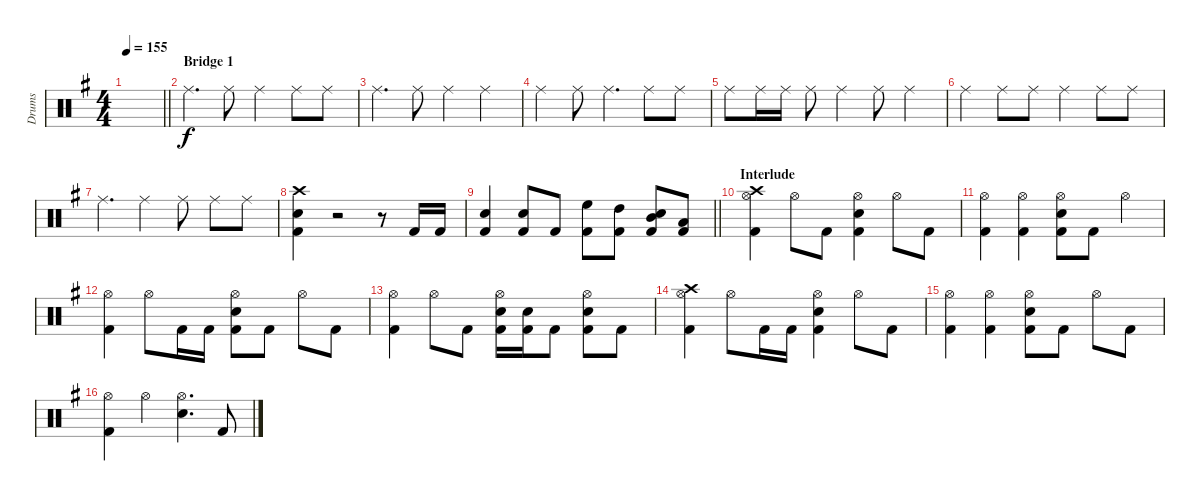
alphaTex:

\track ("Drums" "Drums") {instrument percussion}
\staff {score}
\articulation defaults
\ts (4 4)
\tempo 155
\clef neutral
\barLineRight lightlight
\ks g
|
\section ("" "Bridge 1")
"Ride (middle)".4{d} "Ride (middle)".8 "Ride (middle)".4 "Ride (middle)".8 "Ride (middle)".8 |
"Ride (middle)".4{d} "Ride (middle)".8 "Ride (middle)".4 "Ride (middle)".4 |
"Ride (middle)".4 "Ride (middle)".8 "Ride (middle)".4{d} "Ride (middle)".8 "Ride (middle)".8 |
"Ride (middle)".8 "Ride (middle)".16 "Ride (middle)".16 "Ride (middle)".8 "Ride (middle)".4 "Ride (middle)".8 "Ride (middle)".4 |
"Ride (middle)".4 "Ride (middle)".8 "Ride (middle)".8 "Ride (middle)".4 "Ride (middle)".8 "Ride (middle)".8 |
"Ride (middle)".4{d} "Ride (middle)".4 "Ride (middle)".8 "Ride (middle)".8 "Ride (middle)".8 |
("Crash high (hit)" "Kick (hit) 2" "Snare (hit) 2").4{volume 16} r.2 r.8 "Kick (hit) 2".16 "Kick (hit) 2".16 |
\barLineRight lightlight
("Snare (hit) 2" "Kick (hit) 2").4 ("Snare (hit) 2" "Kick (hit) 2").8 "Kick (hit) 2".8 ("Kick (hit) 2" "High Floor Tom (hit)").8 ("Kick (hit) 2" "High Tom (hit)").8 ("Snare (hit) 2" "Kick (hit) 2" "Mid Tom (hit)").8 ("Kick (hit) 2" "Low Tom (hit)").8 |
\section ("" "Interlude")
("Crash high (hit)" "Hi-Hat (open)" "Kick (hit) 2").4 "Hi-Hat (open)".8 "Kick (hit) 2".8 ("Hi-Hat (open)" "Snare (hit) 2" "Kick (hit) 2").4 "Hi-Hat (open)".8 "Kick (hit) 2".8 |
("Hi-Hat (open)" "Kick (hit) 2").4 ("Hi-Hat (open)" "Kick (hit) 2").4 ("Hi-Hat (open)" "Snare (hit) 2" "Kick (hit) 2").8 "Kick (hit) 2".8 "Hi-Hat (open)".4 |
("Hi-Hat (open)" "Kick (hit) 2").4 "Hi-Hat (open)".8 "Kick (hit) 2".16 "Kick (hit) 2".16 ("Hi-Hat (open)" "Snare (hit) 2" "Kick (hit) 2").8 "Kick (hit) 2".8 "Hi-Hat (open)".8 "Kick (hit) 2".8 |
("Hi-Hat (open)" "Kick (hit) 2").4 "Hi-Hat (open)".8 "Kick (hit) 2".8 ("Hi-Hat (open)" "Snare (hit) 2" "Kick (hit) 2").16 ("Snare (hit) 2" "Kick (hit) 2").16 "Kick (hit) 2".8 ("Hi-Hat (open)" "Snare (hit) 2" "Kick (hit) 2").8 "Kick (hit) 2".8 |
("Crash high (hit)" "Hi-Hat (open)" "Kick (hit) 2").4 "Hi-Hat (open)".8 "Kick (hit) 2".16 "Kick (hit) 2".16 ("Hi-Hat (open)" "Snare (hit) 2" "Kick (hit) 2").4 "Hi-Hat (open)".8 "Kick (hit) 2".8 |
("Hi-Hat (open)" "Kick (hit) 2").4 ("Hi-Hat (open)" "Kick (hit) 2").4 ("Hi-Hat (open)" "Snare (hit) 2" "Kick (hit) 2").8 "Kick (hit) 2".8 "Hi-Hat (open)".8 "Kick (hit) 2".8 |
("Hi-Hat (open)" "Kick (hit) 2").4 "Hi-Hat (open)".4 ("Hi-Hat (open)" "Snare (hit) 2").4{d} "Kick (hit) 2".8
